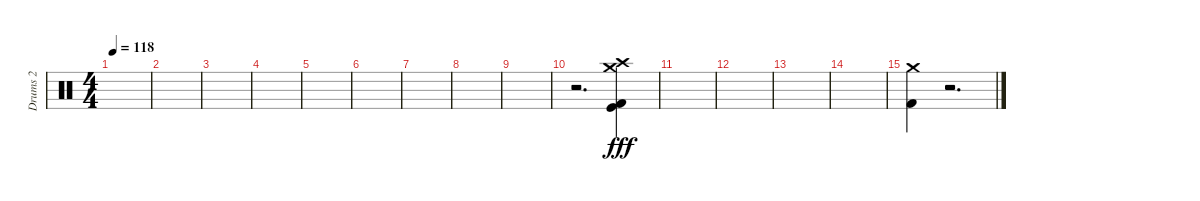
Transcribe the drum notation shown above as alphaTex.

\track ("Drums 2" "Drums 2") {instrument percussion}
\staff {score}
\articulation defaults
\ts (4 4)
\tempo 118
\clef neutral
\ks c
|
|
|
|
|
|
|
|
|
r.2{d} ("Crash medium (hit)" "Crash high (hit)" "Kick (hit) 2" "Kick (hit)").4{dy fff balance 16} |
|
|
|
|
("Crash medium (hit)" "Kick (hit) 2").4{balance 0} r.2{d balance 8}
